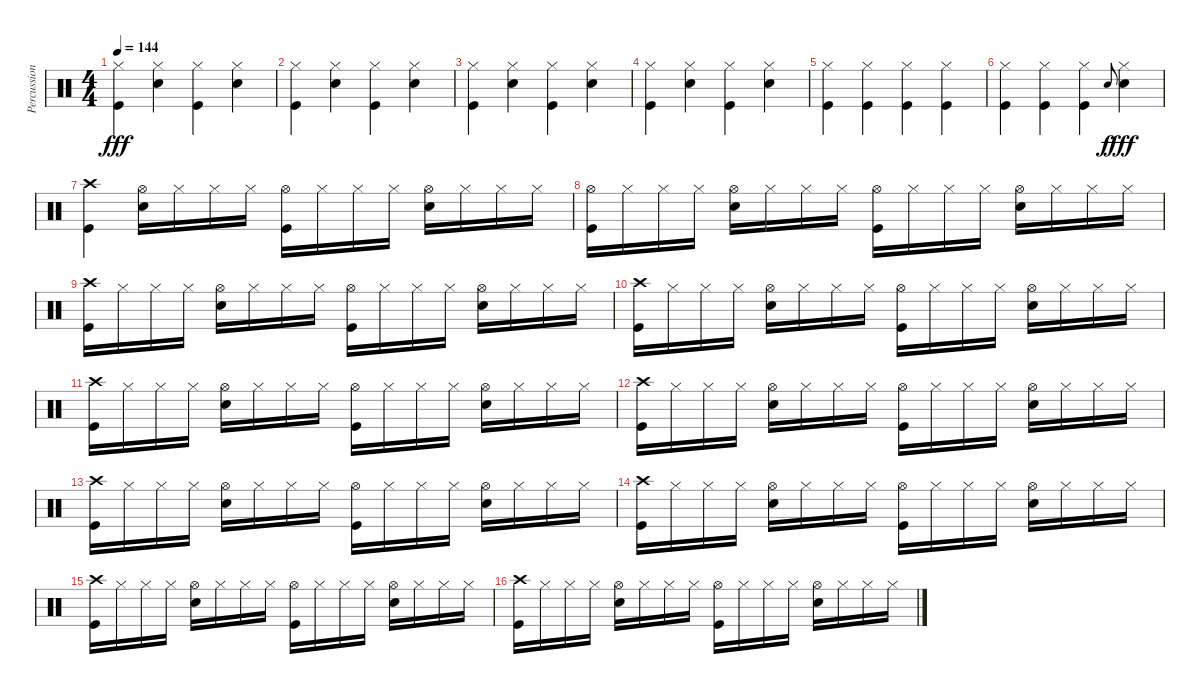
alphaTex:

\track ("Percussions" "Percussion") {instrument percussion}
\staff {score}
\articulation defaults
\ts (4 4)
\tempo 144
\clef neutral
\ks c
("Hi-Hat (closed)" "Kick (hit)").4{dy fff} ("Hi-Hat (closed)" "Snare (hit) 2").4 ("Hi-Hat (closed)" "Kick (hit)").4 ("Hi-Hat (closed)" "Snare (hit) 2").4 |
("Hi-Hat (closed)" "Kick (hit)").4 ("Hi-Hat (closed)" "Snare (hit) 2").4 ("Hi-Hat (closed)" "Kick (hit)").4 ("Hi-Hat (closed)" "Snare (hit) 2").4 |
("Hi-Hat (closed)" "Kick (hit)").4 ("Hi-Hat (closed)" "Snare (hit) 2").4 ("Hi-Hat (closed)" "Kick (hit)").4 ("Hi-Hat (closed)" "Snare (hit) 2").4 |
("Hi-Hat (closed)" "Kick (hit)").4 ("Hi-Hat (closed)" "Snare (hit) 2").4 ("Hi-Hat (closed)" "Kick (hit)").4 ("Hi-Hat (closed)" "Snare (hit) 2").4 |
("Hi-Hat (closed)" "Kick (hit)").4 ("Hi-Hat (closed)" "Kick (hit)").4 ("Hi-Hat (closed)" "Kick (hit)").4 ("Hi-Hat (closed)" "Kick (hit)").4 |
("Hi-Hat (closed)" "Kick (hit)").4 ("Hi-Hat (closed)" "Kick (hit)").4 ("Hi-Hat (closed)" "Kick (hit)").4 "Snare (hit) 2".8{gr onbeat dy f} ("Hi-Hat (closed)" "Snare (hit) 2").4{dy fff} |
("Crash high (hit)" "Kick (hit)").4 ("Hi-Hat (open)" "Snare (hit) 2").16 "Hi-Hat (closed)".16 "Hi-Hat (closed)".16 "Hi-Hat (closed)".16 ("Hi-Hat (open)" "Kick (hit)").16 "Hi-Hat (closed)".16 "Hi-Hat (closed)".16 "Hi-Hat (closed)".16 ("Hi-Hat (open)" "Snare (hit) 2").16 "Hi-Hat (closed)".16 "Hi-Hat (closed)".16 "Hi-Hat (closed)".16 |
("Hi-Hat (open)" "Kick (hit)").16 "Hi-Hat (closed)".16 "Hi-Hat (closed)".16 "Hi-Hat (closed)".16 ("Hi-Hat (open)" "Snare (hit) 2").16 "Hi-Hat (closed)".16 "Hi-Hat (closed)".16 "Hi-Hat (closed)".16 ("Hi-Hat (open)" "Kick (hit)").16 "Hi-Hat (closed)".16 "Hi-Hat (closed)".16 "Hi-Hat (closed)".16 ("Hi-Hat (open)" "Snare (hit) 2").16 "Hi-Hat (closed)".16 "Hi-Hat (closed)".16 "Hi-Hat (closed)".16 |
("Crash high (hit)" "Kick (hit)").16 "Hi-Hat (closed)".16 "Hi-Hat (closed)".16 "Hi-Hat (closed)".16 ("Hi-Hat (open)" "Snare (hit) 2").16 "Hi-Hat (closed)".16 "Hi-Hat (closed)".16 "Hi-Hat (closed)".16 ("Hi-Hat (open)" "Kick (hit)").16 "Hi-Hat (closed)".16 "Hi-Hat (closed)".16 "Hi-Hat (closed)".16 ("Hi-Hat (open)" "Snare (hit) 2").16 "Hi-Hat (closed)".16 "Hi-Hat (closed)".16 "Hi-Hat (closed)".16 |
("Crash high (hit)" "Kick (hit)").16 "Hi-Hat (closed)".16 "Hi-Hat (closed)".16 "Hi-Hat (closed)".16 ("Hi-Hat (open)" "Snare (hit) 2").16 "Hi-Hat (closed)".16 "Hi-Hat (closed)".16 "Hi-Hat (closed)".16 ("Hi-Hat (open)" "Kick (hit)").16 "Hi-Hat (closed)".16 "Hi-Hat (closed)".16 "Hi-Hat (closed)".16 ("Hi-Hat (open)" "Snare (hit) 2").16 "Hi-Hat (closed)".16 "Hi-Hat (closed)".16 "Hi-Hat (closed)".16 |
("Crash high (hit)" "Kick (hit)").16 "Hi-Hat (closed)".16 "Hi-Hat (closed)".16 "Hi-Hat (closed)".16 ("Hi-Hat (open)" "Snare (hit) 2").16 "Hi-Hat (closed)".16 "Hi-Hat (closed)".16 "Hi-Hat (closed)".16 ("Hi-Hat (open)" "Kick (hit)").16 "Hi-Hat (closed)".16 "Hi-Hat (closed)".16 "Hi-Hat (closed)".16 ("Hi-Hat (open)" "Snare (hit) 2").16 "Hi-Hat (closed)".16 "Hi-Hat (closed)".16 "Hi-Hat (closed)".16 |
("Crash high (hit)" "Kick (hit)").16 "Hi-Hat (closed)".16 "Hi-Hat (closed)".16 "Hi-Hat (closed)".16 ("Hi-Hat (open)" "Snare (hit) 2").16 "Hi-Hat (closed)".16 "Hi-Hat (closed)".16 "Hi-Hat (closed)".16 ("Hi-Hat (open)" "Kick (hit)").16 "Hi-Hat (closed)".16 "Hi-Hat (closed)".16 "Hi-Hat (closed)".16 ("Hi-Hat (open)" "Snare (hit) 2").16 "Hi-Hat (closed)".16 "Hi-Hat (closed)".16 "Hi-Hat (closed)".16 |
("Crash high (hit)" "Kick (hit)").16 "Hi-Hat (closed)".16 "Hi-Hat (closed)".16 "Hi-Hat (closed)".16 ("Hi-Hat (open)" "Snare (hit) 2").16 "Hi-Hat (closed)".16 "Hi-Hat (closed)".16 "Hi-Hat (closed)".16 ("Hi-Hat (open)" "Kick (hit)").16 "Hi-Hat (closed)".16 "Hi-Hat (closed)".16 "Hi-Hat (closed)".16 ("Hi-Hat (open)" "Snare (hit) 2").16 "Hi-Hat (closed)".16 "Hi-Hat (closed)".16 "Hi-Hat (closed)".16 |
("Crash high (hit)" "Kick (hit)").16 "Hi-Hat (closed)".16 "Hi-Hat (closed)".16 "Hi-Hat (closed)".16 ("Hi-Hat (open)" "Snare (hit) 2").16 "Hi-Hat (closed)".16 "Hi-Hat (closed)".16 "Hi-Hat (closed)".16 ("Hi-Hat (open)" "Kick (hit)").16 "Hi-Hat (closed)".16 "Hi-Hat (closed)".16 "Hi-Hat (closed)".16 ("Hi-Hat (open)" "Snare (hit) 2").16 "Hi-Hat (closed)".16 "Hi-Hat (closed)".16 "Hi-Hat (closed)".16 |
("Crash high (hit)" "Kick (hit)").16 "Hi-Hat (closed)".16 "Hi-Hat (closed)".16 "Hi-Hat (closed)".16 ("Hi-Hat (open)" "Snare (hit) 2").16 "Hi-Hat (closed)".16 "Hi-Hat (closed)".16 "Hi-Hat (closed)".16 ("Hi-Hat (open)" "Kick (hit)").16 "Hi-Hat (closed)".16 "Hi-Hat (closed)".16 "Hi-Hat (closed)".16 ("Hi-Hat (open)" "Snare (hit) 2").16 "Hi-Hat (closed)".16 "Hi-Hat (closed)".16 "Hi-Hat (closed)".16 |
("Crash high (hit)" "Kick (hit)").16 "Hi-Hat (closed)".16 "Hi-Hat (closed)".16 "Hi-Hat (closed)".16 ("Hi-Hat (open)" "Snare (hit) 2").16 "Hi-Hat (closed)".16 "Hi-Hat (closed)".16 "Hi-Hat (closed)".16 ("Hi-Hat (open)" "Kick (hit)").16 "Hi-Hat (closed)".16 "Hi-Hat (closed)".16 "Hi-Hat (closed)".16 ("Hi-Hat (open)" "Snare (hit) 2").16 "Hi-Hat (closed)".16 "Hi-Hat (closed)".16 "Hi-Hat (closed)".16
